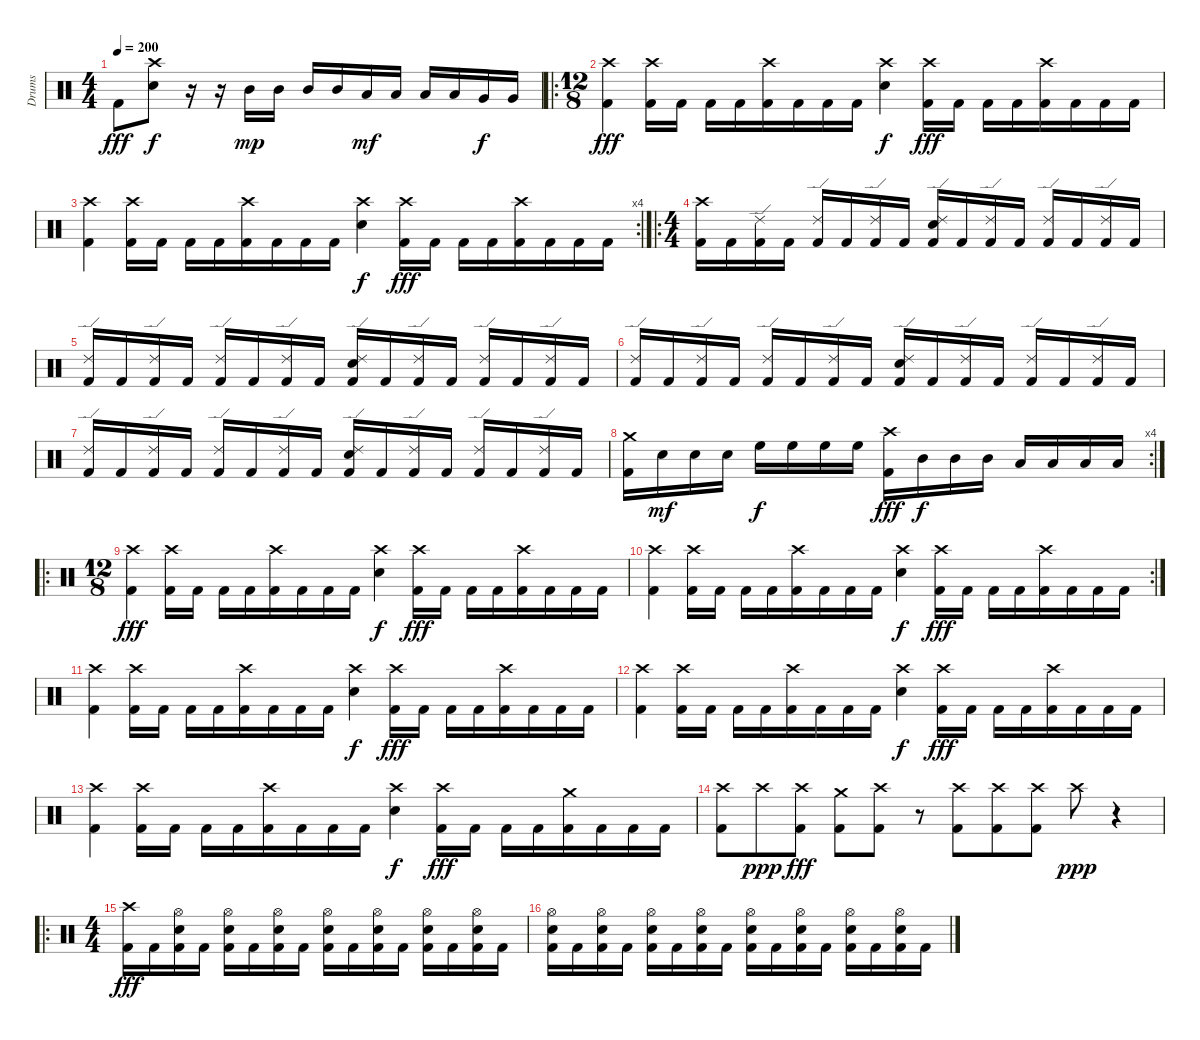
\track ("Drums" "Drums") {instrument percussion}
\staff {score}
\articulation defaults
\ts (4 4)
\tempo 200
\clef neutral
\ks c "Kick (hit) 2".8{dy fff}
("Crash high (hit)" "Electric Snare (hit)").8{dy f} r.16 r.16 "Mid Tom (hit)".16{dy mp} "Mid Tom (hit)".16 "Mid Tom (hit)".16 "Mid Tom (hit)".16 "Low Tom (hit)".16{dy mf} "Low Tom (hit)".16 "Low Tom (hit)".16 "Low Tom (hit)".16 "Very Low Tom (hit)".16{dy f} "Very Low Tom (hit)".16 |
\ro
\ts (12 8)
("Crash high (hit)" "Kick (hit) 2").4{dy fff} ("Crash high (hit)" "Kick (hit) 2").16 "Kick (hit) 2".16 "Kick (hit) 2".16 "Kick (hit) 2".16 ("Crash high (hit)" "Kick (hit) 2").16 "Kick (hit) 2".16 "Kick (hit) 2".16 "Kick (hit) 2".16 ("Crash high (hit)" "Electric Snare (hit)").4{dy f} ("Crash high (hit)" "Kick (hit) 2").16{dy fff} "Kick (hit) 2".16 "Kick (hit) 2".16 "Kick (hit) 2".16 ("Crash high (hit)" "Kick (hit) 2").16 "Kick (hit) 2".16 "Kick (hit) 2".16 "Kick (hit) 2".16 |
\rc 4
("Crash high (hit)" "Kick (hit) 2").4 ("Crash high (hit)" "Kick (hit) 2").16 "Kick (hit) 2".16 "Kick (hit) 2".16 "Kick (hit) 2".16 ("Crash high (hit)" "Kick (hit) 2").16 "Kick (hit) 2".16 "Kick (hit) 2".16 "Kick (hit) 2".16 ("Crash high (hit)" "Electric Snare (hit)").4{dy f} ("Crash high (hit)" "Kick (hit) 2").16{dy fff} "Kick (hit) 2".16 "Kick (hit) 2".16 "Kick (hit) 2".16 ("Crash high (hit)" "Kick (hit) 2").16 "Kick (hit) 2".16 "Kick (hit) 2".16 "Kick (hit) 2".16 |
\ro
\ts (4 4)
("Crash high (hit)" "Kick (hit) 2").16 "Kick (hit) 2".16 ("Ride (edge) 2" "Kick (hit) 2").16 "Kick (hit) 2".16 ("Ride (edge) 2" "Kick (hit) 2").16 "Kick (hit) 2".16 ("Ride (edge) 2" "Kick (hit) 2").16 "Kick (hit) 2".16 ("Ride (edge) 2" "Electric Snare (hit)" "Kick (hit) 2").16 "Kick (hit) 2".16 ("Ride (edge) 2" "Kick (hit) 2").16 "Kick (hit) 2".16 ("Ride (edge) 2" "Kick (hit) 2").16 "Kick (hit) 2".16 ("Ride (edge) 2" "Kick (hit) 2").16 "Kick (hit) 2".16 |
("Ride (edge) 2" "Kick (hit) 2").16 "Kick (hit) 2".16 ("Ride (edge) 2" "Kick (hit) 2").16 "Kick (hit) 2".16 ("Ride (edge) 2" "Kick (hit) 2").16 "Kick (hit) 2".16 ("Ride (edge) 2" "Kick (hit) 2").16 "Kick (hit) 2".16 ("Ride (edge) 2" "Electric Snare (hit)" "Kick (hit) 2").16 "Kick (hit) 2".16 ("Ride (edge) 2" "Kick (hit) 2").16 "Kick (hit) 2".16 ("Ride (edge) 2" "Kick (hit) 2").16 "Kick (hit) 2".16 ("Ride (edge) 2" "Kick (hit) 2").16 "Kick (hit) 2".16 |
("Ride (edge) 2" "Kick (hit) 2").16 "Kick (hit) 2".16 ("Ride (edge) 2" "Kick (hit) 2").16 "Kick (hit) 2".16 ("Ride (edge) 2" "Kick (hit) 2").16 "Kick (hit) 2".16 ("Ride (edge) 2" "Kick (hit) 2").16 "Kick (hit) 2".16 ("Ride (edge) 2" "Electric Snare (hit)" "Kick (hit) 2").16 "Kick (hit) 2".16 ("Ride (edge) 2" "Kick (hit) 2").16 "Kick (hit) 2".16 ("Ride (edge) 2" "Kick (hit) 2").16 "Kick (hit) 2".16 ("Ride (edge) 2" "Kick (hit) 2").16 "Kick (hit) 2".16 |
("Ride (edge) 2" "Kick (hit) 2").16 "Kick (hit) 2".16 ("Ride (edge) 2" "Kick (hit) 2").16 "Kick (hit) 2".16 ("Ride (edge) 2" "Kick (hit) 2").16 "Kick (hit) 2".16 ("Ride (edge) 2" "Kick (hit) 2").16 "Kick (hit) 2".16 ("Ride (edge) 2" "Electric Snare (hit)" "Kick (hit) 2").16 "Kick (hit) 2".16 ("Ride (edge) 2" "Kick (hit) 2").16 "Kick (hit) 2".16 ("Ride (edge) 2" "Kick (hit) 2").16 "Kick (hit) 2".16 ("Ride (edge) 2" "Kick (hit) 2").16 "Kick (hit) 2".16 |
\rc 4
("Crash medium (hit)" "Kick (hit) 2").16 "Electric Snare (hit)".16{dy mf} "Electric Snare (hit)".16 "Electric Snare (hit)".16 "High Floor Tom (hit)".16{dy f} "High Floor Tom (hit)".16 "High Floor Tom (hit)".16 "High Floor Tom (hit)".16 ("Crash high (hit)" "Kick (hit) 2").16{dy fff} "Mid Tom (hit)".16{dy f} "Mid Tom (hit)".16 "Mid Tom (hit)".16 "Low Tom (hit)".16 "Low Tom (hit)".16 "Low Tom (hit)".16 "Low Tom (hit)".16 |
\ro
\ts (12 8)
("Crash high (hit)" "Kick (hit) 2").4{dy fff} ("Crash high (hit)" "Kick (hit) 2").16 "Kick (hit) 2".16 "Kick (hit) 2".16 "Kick (hit) 2".16 ("Crash high (hit)" "Kick (hit) 2").16 "Kick (hit) 2".16 "Kick (hit) 2".16 "Kick (hit) 2".16 ("Crash high (hit)" "Electric Snare (hit)").4{dy f} ("Crash high (hit)" "Kick (hit) 2").16{dy fff} "Kick (hit) 2".16 "Kick (hit) 2".16 "Kick (hit) 2".16 ("Crash high (hit)" "Kick (hit) 2").16 "Kick (hit) 2".16 "Kick (hit) 2".16 "Kick (hit) 2".16 |
\rc 2
("Crash high (hit)" "Kick (hit) 2").4 ("Crash high (hit)" "Kick (hit) 2").16 "Kick (hit) 2".16 "Kick (hit) 2".16 "Kick (hit) 2".16 ("Crash high (hit)" "Kick (hit) 2").16 "Kick (hit) 2".16 "Kick (hit) 2".16 "Kick (hit) 2".16 ("Crash high (hit)" "Electric Snare (hit)").4{dy f} ("Crash high (hit)" "Kick (hit) 2").16{dy fff} "Kick (hit) 2".16 "Kick (hit) 2".16 "Kick (hit) 2".16 ("Crash high (hit)" "Kick (hit) 2").16 "Kick (hit) 2".16 "Kick (hit) 2".16 "Kick (hit) 2".16 |
("Crash high (hit)" "Kick (hit) 2").4 ("Crash high (hit)" "Kick (hit) 2").16 "Kick (hit) 2".16 "Kick (hit) 2".16 "Kick (hit) 2".16 ("Crash high (hit)" "Kick (hit) 2").16 "Kick (hit) 2".16 "Kick (hit) 2".16 "Kick (hit) 2".16 ("Crash high (hit)" "Electric Snare (hit)").4{dy f} ("Crash high (hit)" "Kick (hit) 2").16{dy fff} "Kick (hit) 2".16 "Kick (hit) 2".16 "Kick (hit) 2".16 ("Crash high (hit)" "Kick (hit) 2").16 "Kick (hit) 2".16 "Kick (hit) 2".16 "Kick (hit) 2".16 |
("Crash high (hit)" "Kick (hit) 2").4 ("Crash high (hit)" "Kick (hit) 2").16 "Kick (hit) 2".16 "Kick (hit) 2".16 "Kick (hit) 2".16 ("Crash high (hit)" "Kick (hit) 2").16 "Kick (hit) 2".16 "Kick (hit) 2".16 "Kick (hit) 2".16 ("Crash high (hit)" "Electric Snare (hit)").4{dy f} ("Crash high (hit)" "Kick (hit) 2").16{dy fff} "Kick (hit) 2".16 "Kick (hit) 2".16 "Kick (hit) 2".16 ("Crash high (hit)" "Kick (hit) 2").16 "Kick (hit) 2".16 "Kick (hit) 2".16 "Kick (hit) 2".16 |
("Crash high (hit)" "Kick (hit) 2").4 ("Crash high (hit)" "Kick (hit) 2").16 "Kick (hit) 2".16 "Kick (hit) 2".16 "Kick (hit) 2".16 ("Crash high (hit)" "Kick (hit) 2").16 "Kick (hit) 2".16 "Kick (hit) 2".16 "Kick (hit) 2".16 ("Crash high (hit)" "Electric Snare (hit)").4{dy f} ("Crash high (hit)" "Kick (hit) 2").16{dy fff} "Kick (hit) 2".16 "Kick (hit) 2".16 "Kick (hit) 2".16 ("Crash medium (hit)" "Kick (hit) 2").16 "Kick (hit) 2".16 "Kick (hit) 2".16 "Kick (hit) 2".16 |
("Crash high (hit)" "Kick (hit) 2").8 "Crash high (hit)".8{dy ppp} ("Crash high (hit)" "Kick (hit) 2").8{dy fff} ("Crash medium (hit)" "Kick (hit) 2").8 ("Crash high (hit)" "Kick (hit) 2").8 r.8 ("Crash high (hit)" "Kick (hit) 2").8 ("Crash high (hit)" "Kick (hit) 2").8 ("Crash high (hit)" "Kick (hit) 2").8 "Crash high (hit)".8{dy ppp} r.4 |
\ro
\ts (4 4)
("Crash high (hit)" "Kick (hit) 2").16{dy fff} "Kick (hit) 2".16 ("Hi-Hat (open)" "Electric Snare (hit)" "Kick (hit) 2").16 "Kick (hit) 2".16 ("Hi-Hat (open)" "Electric Snare (hit)" "Kick (hit) 2").16 "Kick (hit) 2".16 ("Hi-Hat (open)" "Electric Snare (hit)" "Kick (hit) 2").16 "Kick (hit) 2".16 ("Hi-Hat (open)" "Electric Snare (hit)" "Kick (hit) 2").16 "Kick (hit) 2".16 ("Hi-Hat (open)" "Electric Snare (hit)" "Kick (hit) 2").16 "Kick (hit) 2".16 ("Hi-Hat (open)" "Electric Snare (hit)" "Kick (hit) 2").16 "Kick (hit) 2".16 ("Hi-Hat (open)" "Electric Snare (hit)" "Kick (hit) 2").16 "Kick (hit) 2".16 |
("Hi-Hat (open)" "Electric Snare (hit)" "Kick (hit) 2").16 "Kick (hit) 2".16 ("Hi-Hat (open)" "Electric Snare (hit)" "Kick (hit) 2").16 "Kick (hit) 2".16 ("Hi-Hat (open)" "Electric Snare (hit)" "Kick (hit) 2").16 "Kick (hit) 2".16 ("Hi-Hat (open)" "Electric Snare (hit)" "Kick (hit) 2").16 "Kick (hit) 2".16 ("Hi-Hat (open)" "Electric Snare (hit)" "Kick (hit) 2").16 "Kick (hit) 2".16 ("Hi-Hat (open)" "Electric Snare (hit)" "Kick (hit) 2").16 "Kick (hit) 2".16 ("Hi-Hat (open)" "Electric Snare (hit)" "Kick (hit) 2").16 "Kick (hit) 2".16 ("Hi-Hat (open)" "Electric Snare (hit)" "Kick (hit) 2").16 "Kick (hit) 2".16
